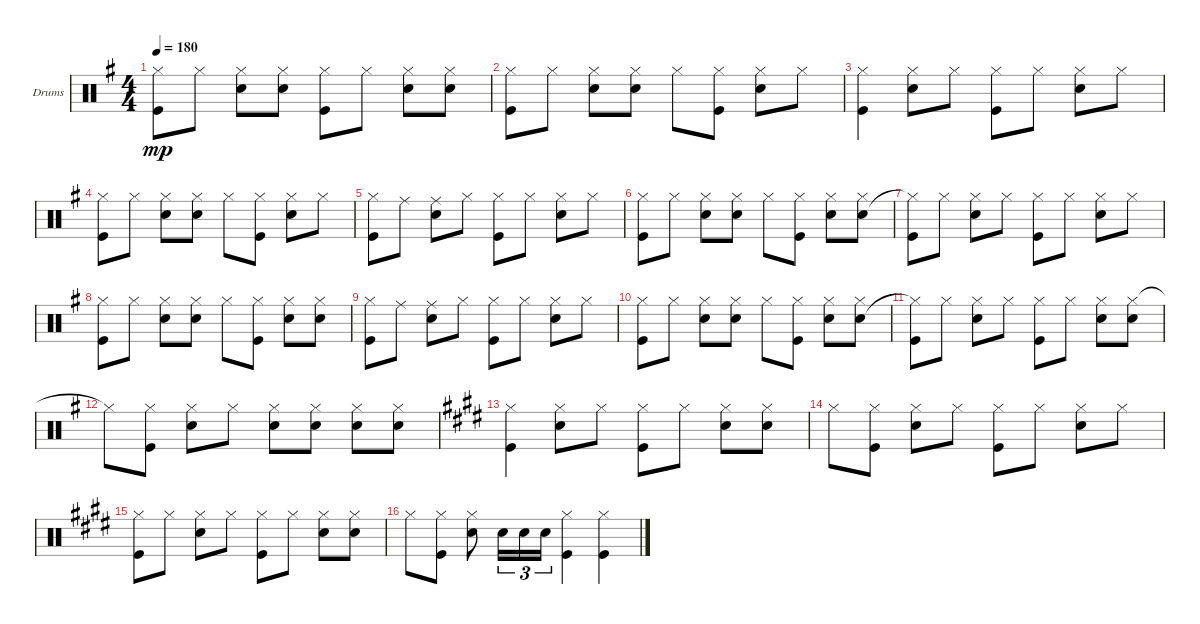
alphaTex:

\defaultSystemsLayout 4
\bracketExtendMode groupsimilarinstruments
\firstSystemTrackNameOrientation horizontal
\otherSystemsTrackNameOrientation horizontal
\track ("Drumkit" "Drums") {instrument percussion}
\staff {score}
\articulation defaults
\ts (4 4)
\tempo 180
\clef neutral
\ks g
("Hi-Hat (closed)" "Kick (hit)").8{dy mp} "Hi-Hat (closed)".8 ("Hi-Hat (closed)" "Snare (hit) 2").8 ("Snare (hit) 2" "Hi-Hat (closed)").8 ("Hi-Hat (closed)" "Kick (hit)").8 "Hi-Hat (closed)".8 ("Hi-Hat (closed)" "Snare (hit) 2").8 ("Hi-Hat (closed)" "Snare (hit) 2").8 |
("Hi-Hat (closed)" "Kick (hit)").8 "Hi-Hat (closed)".8 ("Hi-Hat (closed)" "Snare (hit) 2").8 ("Snare (hit) 2" "Hi-Hat (closed)").8 "Hi-Hat (closed)".8 ("Hi-Hat (closed)" "Kick (hit)").8 ("Hi-Hat (closed)" "Snare (hit) 2").8 "Hi-Hat (closed)".8 |
("Hi-Hat (closed)" "Kick (hit)").4 ("Hi-Hat (closed)" "Snare (hit) 2").8 "Hi-Hat (closed)".8 ("Hi-Hat (closed)" "Kick (hit)").8 "Hi-Hat (closed)".8 ("Hi-Hat (closed)" "Snare (hit) 2").8 "Hi-Hat (closed)".8 |
("Hi-Hat (closed)" "Kick (hit)").8 "Hi-Hat (closed)".8 ("Hi-Hat (closed)" "Snare (hit) 2").8 ("Snare (hit) 2" "Hi-Hat (closed)").8 "Hi-Hat (closed)".8 ("Hi-Hat (closed)" "Kick (hit)").8 ("Snare (hit) 2" "Hi-Hat (closed)").8 "Hi-Hat (closed)".8 |
("Hi-Hat (closed)" "Kick (hit)").8 "Ride (middle)".8 ("Ride (middle)" "Snare (hit) 2").8 "Hi-Hat (closed)".8 ("Hi-Hat (closed)" "Kick (hit)").8 "Hi-Hat (closed)".8 ("Hi-Hat (closed)" "Snare (hit) 2").8 "Hi-Hat (closed)".8 |
("Hi-Hat (closed)" "Kick (hit)").8 "Hi-Hat (closed)".8 ("Hi-Hat (closed)" "Snare (hit) 2").8 ("Hi-Hat (closed)" "Snare (hit) 2").8 "Hi-Hat (closed)".8 ("Hi-Hat (closed)" "Kick (hit)").8 ("Hi-Hat (closed)" "Snare (hit) 2").8 ("Snare (hit) 2" "Hi-Hat (closed)").8 |
("Hi-Hat (closed)"{t} "Kick (hit)").8 "Hi-Hat (closed)".8 ("Hi-Hat (closed)" "Snare (hit) 2").8 "Hi-Hat (closed)".8 ("Hi-Hat (closed)" "Kick (hit)").8 "Hi-Hat (closed)".8 ("Hi-Hat (closed)" "Snare (hit) 2").8 "Hi-Hat (closed)".8 |
("Hi-Hat (closed)" "Kick (hit)").8 "Hi-Hat (closed)".8 ("Hi-Hat (closed)" "Snare (hit) 2").8 ("Snare (hit) 2" "Hi-Hat (closed)").8 "Hi-Hat (closed)".8 ("Hi-Hat (closed)" "Kick (hit)").8 ("Snare (hit) 2" "Hi-Hat (closed)").8 ("Snare (hit) 2" "Hi-Hat (closed)").8 |
("Hi-Hat (closed)" "Kick (hit)").8 "Ride (middle)".8 ("Ride (middle)" "Snare (hit) 2").8 "Hi-Hat (closed)".8 ("Hi-Hat (closed)" "Kick (hit)").8 "Hi-Hat (closed)".8 ("Hi-Hat (closed)" "Snare (hit) 2").8 "Hi-Hat (closed)".8 |
("Hi-Hat (closed)" "Kick (hit)").8 "Hi-Hat (closed)".8 ("Hi-Hat (closed)" "Snare (hit) 2").8 ("Hi-Hat (closed)" "Snare (hit) 2").8 "Hi-Hat (closed)".8 ("Hi-Hat (closed)" "Kick (hit)").8 ("Hi-Hat (closed)" "Snare (hit) 2").8 ("Snare (hit) 2" "Hi-Hat (closed)").8 |
("Hi-Hat (closed)"{t} "Kick (hit)").8 "Hi-Hat (closed)".8 ("Hi-Hat (closed)" "Snare (hit) 2").8 "Hi-Hat (closed)".8 ("Hi-Hat (closed)" "Kick (hit)").8 "Hi-Hat (closed)".8 ("Hi-Hat (closed)" "Snare (hit) 2").8 ("Hi-Hat (closed)" "Snare (hit) 2").8 |
"Hi-Hat (closed)"{t}.8 ("Hi-Hat (closed)" "Kick (hit)").8 ("Hi-Hat (closed)" "Snare (hit) 2").8 "Hi-Hat (closed)".8 ("Hi-Hat (closed)" "Snare (hit) 2").8 ("Hi-Hat (closed)" "Snare (hit) 2").8 ("Hi-Hat (closed)" "Snare (hit) 2").8 ("Snare (hit) 2" "Hi-Hat (closed)").8 |
\ks c#minor
("Hi-Hat (closed)" "Kick (hit)").4 ("Snare (hit) 2" "Hi-Hat (closed)").8 "Hi-Hat (closed)".8 ("Hi-Hat (closed)" "Kick (hit)").8 "Hi-Hat (closed)".8 ("Hi-Hat (closed)" "Snare (hit) 2").8 ("Snare (hit) 2" "Hi-Hat (closed)").8 |
"Hi-Hat (closed)".8 ("Hi-Hat (closed)" "Kick (hit)").8 ("Hi-Hat (closed)" "Snare (hit) 2").8 "Hi-Hat (closed)".8 ("Hi-Hat (closed)" "Kick (hit)").8 "Hi-Hat (closed)".8 ("Hi-Hat (closed)" "Snare (hit) 2").8 "Hi-Hat (closed)".8 |
("Hi-Hat (closed)" "Kick (hit)").8 "Hi-Hat (closed)".8 ("Hi-Hat (closed)" "Snare (hit) 2").8 "Hi-Hat (closed)".8 ("Hi-Hat (closed)" "Kick (hit)").8 "Hi-Hat (closed)".8 ("Hi-Hat (closed)" "Snare (hit) 2").8 ("Hi-Hat (closed)" "Snare (hit) 2").8 |
"Hi-Hat (closed)".8 ("Hi-Hat (closed)" "Kick (hit)").8 ("Hi-Hat (closed)" "Snare (hit) 2").8 "Snare (hit) 2".16{tu (3 2)} "Snare (hit) 2".16{tu (3 2)} "Snare (hit) 2".16{tu (3 2)} ("Hi-Hat (closed)" "Kick (hit)").4 ("Kick (hit)" "Hi-Hat (closed)").4
